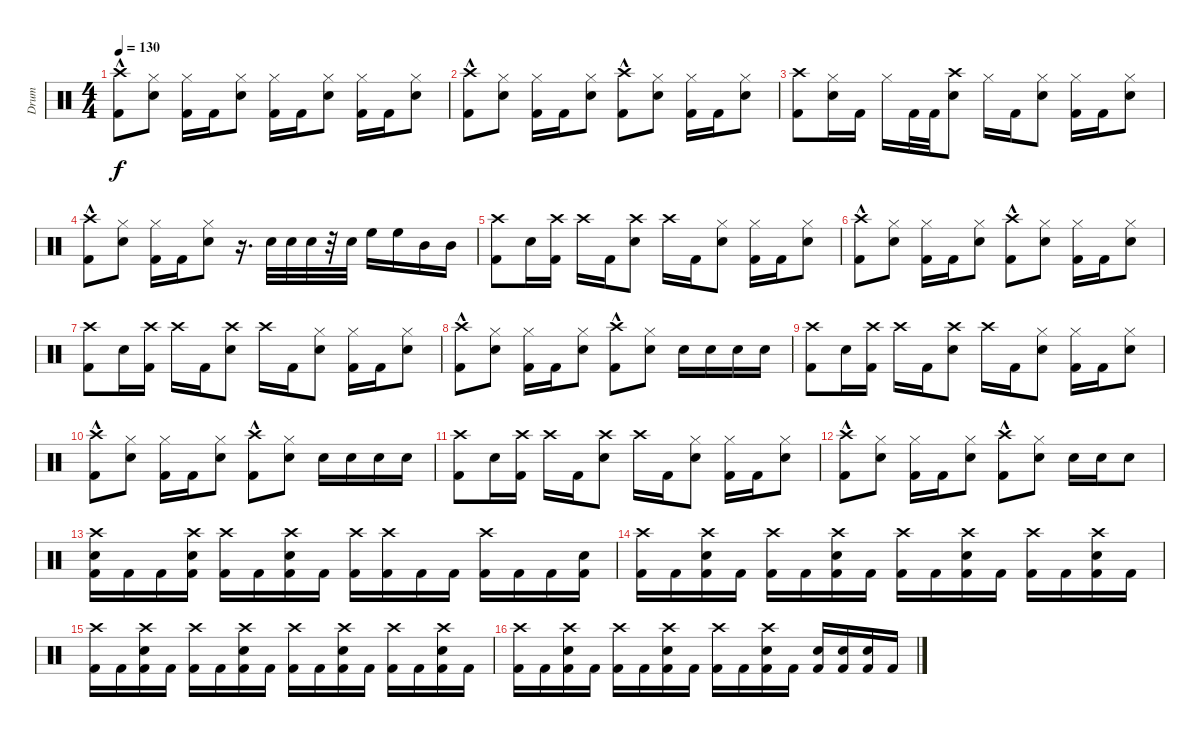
\track ("Drum" "Drum") {instrument percussion}
\staff {score}
\articulation defaults
\ts (4 4)
\tempo 130
\clef neutral
\ks c
("Crash high (hit)" "Kick (hit) 2"{hac}).8{dy f} ("Hi-Hat (closed)" "Snare (hit) 2").8 ("Hi-Hat (closed)" "Kick (hit) 2").16 "Kick (hit) 2".16 ("Hi-Hat (closed)" "Snare (hit) 2").8 ("Hi-Hat (closed)" "Kick (hit) 2").16 "Kick (hit) 2".16 ("Hi-Hat (closed)" "Snare (hit) 2").8 ("Hi-Hat (closed)" "Kick (hit) 2").16 "Kick (hit) 2".16 ("Hi-Hat (closed)" "Snare (hit) 2").8 |
("Crash high (hit)" "Kick (hit) 2"{hac}).8 ("Hi-Hat (closed)" "Snare (hit) 2").8 ("Hi-Hat (closed)" "Kick (hit) 2").16 "Kick (hit) 2".16 ("Hi-Hat (closed)" "Snare (hit) 2").8 ("Kick (hit) 2"{hac} "Crash high (hit)").8 ("Hi-Hat (closed)" "Snare (hit) 2").8 ("Hi-Hat (closed)" "Kick (hit) 2").16 "Kick (hit) 2".16 ("Hi-Hat (closed)" "Snare (hit) 2").8 |
("Crash high (hit)" "Kick (hit) 2").8 ("Hi-Hat (closed)" "Snare (hit) 2").16 "Kick (hit) 2".16 "Hi-Hat (closed)".16 "Kick (hit) 2".32 "Kick (hit) 2".32 ("Crash high (hit)" "Snare (hit) 2").8 "Hi-Hat (closed)".16 "Kick (hit) 2".16 ("Hi-Hat (closed)" "Snare (hit) 2").8 ("Hi-Hat (closed)" "Kick (hit) 2").16 "Kick (hit) 2".16 ("Hi-Hat (closed)" "Snare (hit) 2").8 |
("Crash high (hit)" "Kick (hit) 2"{hac}).8 ("Hi-Hat (closed)" "Snare (hit) 2").8 ("Hi-Hat (closed)" "Kick (hit) 2").16 "Kick (hit) 2".16 ("Hi-Hat (closed)" "Snare (hit) 2").8 r.16{d} "Snare (hit) 2".32 "Snare (hit) 2".32 "Snare (hit) 2".32 r.32 "Snare (hit) 2".32 "High Floor Tom (hit)".16 "High Floor Tom (hit)".16 "Mid Tom (hit)".16 "Mid Tom (hit)".16 |
("Crash high (hit)" "Kick (hit) 2").8 "Snare (hit) 2".16 ("Crash high (hit)" "Kick (hit) 2").16 "Crash high (hit)".16 "Kick (hit) 2".16 ("Crash high (hit)" "Snare (hit) 2").8 "Crash high (hit)".16 "Kick (hit) 2".16 ("Hi-Hat (closed)" "Snare (hit) 2").8 ("Hi-Hat (closed)" "Kick (hit) 2").16 "Kick (hit) 2".16 ("Hi-Hat (closed)" "Snare (hit) 2").8 |
("Crash high (hit)" "Kick (hit) 2"{hac}).8 ("Hi-Hat (closed)" "Snare (hit) 2").8 ("Hi-Hat (closed)" "Kick (hit) 2").16 "Kick (hit) 2".16 ("Hi-Hat (closed)" "Snare (hit) 2").8 ("Crash high (hit)" "Kick (hit) 2"{hac}).8 ("Hi-Hat (closed)" "Snare (hit) 2").8 ("Hi-Hat (closed)" "Kick (hit) 2").16 "Kick (hit) 2".16 ("Hi-Hat (closed)" "Snare (hit) 2").8 |
("Crash high (hit)" "Kick (hit) 2").8 "Snare (hit) 2".16 ("Crash high (hit)" "Kick (hit) 2").16 "Crash high (hit)".16 "Kick (hit) 2".16 ("Crash high (hit)" "Snare (hit) 2").8 "Crash high (hit)".16 "Kick (hit) 2".16 ("Hi-Hat (closed)" "Snare (hit) 2").8 ("Hi-Hat (closed)" "Kick (hit) 2").16 "Kick (hit) 2".16 ("Hi-Hat (closed)" "Snare (hit) 2").8 |
("Crash high (hit)" "Kick (hit) 2"{hac}).8 ("Hi-Hat (closed)" "Snare (hit) 2").8 ("Hi-Hat (closed)" "Kick (hit) 2").16 "Kick (hit) 2".16 ("Hi-Hat (closed)" "Snare (hit) 2").8 ("Crash high (hit)" "Kick (hit) 2"{hac}).8 ("Hi-Hat (closed)" "Snare (hit) 2").8 "Snare (hit) 2".16 "Snare (hit) 2".16 "Snare (hit) 2".16 "Snare (hit) 2".16 |
("Crash high (hit)" "Kick (hit) 2").8 "Snare (hit) 2".16 ("Crash high (hit)" "Kick (hit) 2").16 "Crash high (hit)".16 "Kick (hit) 2".16 ("Crash high (hit)" "Snare (hit) 2").8 "Crash high (hit)".16 "Kick (hit) 2".16 ("Hi-Hat (closed)" "Snare (hit) 2").8 ("Hi-Hat (closed)" "Kick (hit) 2").16 "Kick (hit) 2".16 ("Hi-Hat (closed)" "Snare (hit) 2").8 |
("Crash high (hit)" "Kick (hit) 2"{hac}).8 ("Hi-Hat (closed)" "Snare (hit) 2").8 ("Hi-Hat (closed)" "Kick (hit) 2").16 "Kick (hit) 2".16 ("Hi-Hat (closed)" "Snare (hit) 2").8 ("Crash high (hit)" "Kick (hit) 2"{hac}).8 ("Hi-Hat (closed)" "Snare (hit) 2").8 "Snare (hit) 2".16 "Snare (hit) 2".16 "Snare (hit) 2".16 "Snare (hit) 2".16 |
("Crash high (hit)" "Kick (hit) 2").8 "Snare (hit) 2".16 ("Crash high (hit)" "Kick (hit) 2").16 "Crash high (hit)".16 "Kick (hit) 2".16 ("Crash high (hit)" "Snare (hit) 2").8 "Crash high (hit)".16 "Kick (hit) 2".16 ("Hi-Hat (closed)" "Snare (hit) 2").8 ("Hi-Hat (closed)" "Kick (hit) 2").16 "Kick (hit) 2".16 ("Hi-Hat (closed)" "Snare (hit) 2").8 |
("Crash high (hit)" "Kick (hit) 2"{hac}).8 ("Hi-Hat (closed)" "Snare (hit) 2").8 ("Hi-Hat (closed)" "Kick (hit) 2").16 "Kick (hit) 2".16 ("Hi-Hat (closed)" "Snare (hit) 2").8 ("Crash high (hit)" "Kick (hit) 2"{hac}).8 ("Hi-Hat (closed)" "Snare (hit) 2").8 "Snare (hit) 2".16 "Snare (hit) 2".16 "Snare (hit) 2".8 |
("Kick (hit) 2" "Snare (hit) 2" "Crash high (hit)").16 "Kick (hit) 2".16 "Kick (hit) 2".16 ("Kick (hit) 2" "Crash high (hit)" "Snare (hit) 2").16 ("Kick (hit) 2" "Crash high (hit)").16 "Kick (hit) 2".16 ("Kick (hit) 2" "Crash high (hit)" "Snare (hit) 2").16 "Kick (hit) 2".16 ("Kick (hit) 2" "Crash high (hit)").16 ("Kick (hit) 2" "Crash high (hit)").16 "Kick (hit) 2".16 "Kick (hit) 2".16 ("Kick (hit) 2" "Crash high (hit)").16 "Kick (hit) 2".16 "Kick (hit) 2".16 ("Kick (hit) 2" "Snare (hit) 2").16 |
("Kick (hit) 2" "Crash high (hit)").16 "Kick (hit) 2".16 ("Kick (hit) 2" "Crash high (hit)" "Snare (hit) 2").16 "Kick (hit) 2".16 ("Kick (hit) 2" "Crash high (hit)").16 "Kick (hit) 2".16 ("Kick (hit) 2" "Crash high (hit)" "Snare (hit) 2").16 "Kick (hit) 2".16 ("Kick (hit) 2" "Crash high (hit)").16 "Kick (hit) 2".16 ("Kick (hit) 2" "Crash high (hit)" "Snare (hit) 2").16 "Kick (hit) 2".16 ("Kick (hit) 2" "Crash high (hit)").16 "Kick (hit) 2".16 ("Kick (hit) 2" "Crash high (hit)" "Snare (hit) 2").16 "Kick (hit) 2".16 |
("Kick (hit) 2" "Crash high (hit)").16 "Kick (hit) 2".16 ("Kick (hit) 2" "Crash high (hit)" "Snare (hit) 2").16 "Kick (hit) 2".16 ("Kick (hit) 2" "Crash high (hit)").16 "Kick (hit) 2".16 ("Kick (hit) 2" "Crash high (hit)" "Snare (hit) 2").16 "Kick (hit) 2".16 ("Kick (hit) 2" "Crash high (hit)").16 "Kick (hit) 2".16 ("Kick (hit) 2" "Crash high (hit)" "Snare (hit) 2").16 "Kick (hit) 2".16 ("Kick (hit) 2" "Crash high (hit)").16 "Kick (hit) 2".16 ("Kick (hit) 2" "Crash high (hit)" "Snare (hit) 2").16 "Kick (hit) 2".16 |
("Kick (hit) 2" "Crash high (hit)").16 "Kick (hit) 2".16 ("Kick (hit) 2" "Crash high (hit)" "Snare (hit) 2").16 "Kick (hit) 2".16 ("Kick (hit) 2" "Crash high (hit)").16 "Kick (hit) 2".16 ("Kick (hit) 2" "Crash high (hit)" "Snare (hit) 2").16 "Kick (hit) 2".16 ("Kick (hit) 2" "Crash high (hit)").16 "Kick (hit) 2".16 ("Kick (hit) 2" "Crash high (hit)" "Snare (hit) 2").16 "Kick (hit) 2".16 ("Kick (hit) 2" "Snare (hit) 2").16 ("Kick (hit) 2" "Snare (hit) 2").16 ("Kick (hit) 2" "Snare (hit) 2").16 "Kick (hit) 2".16
